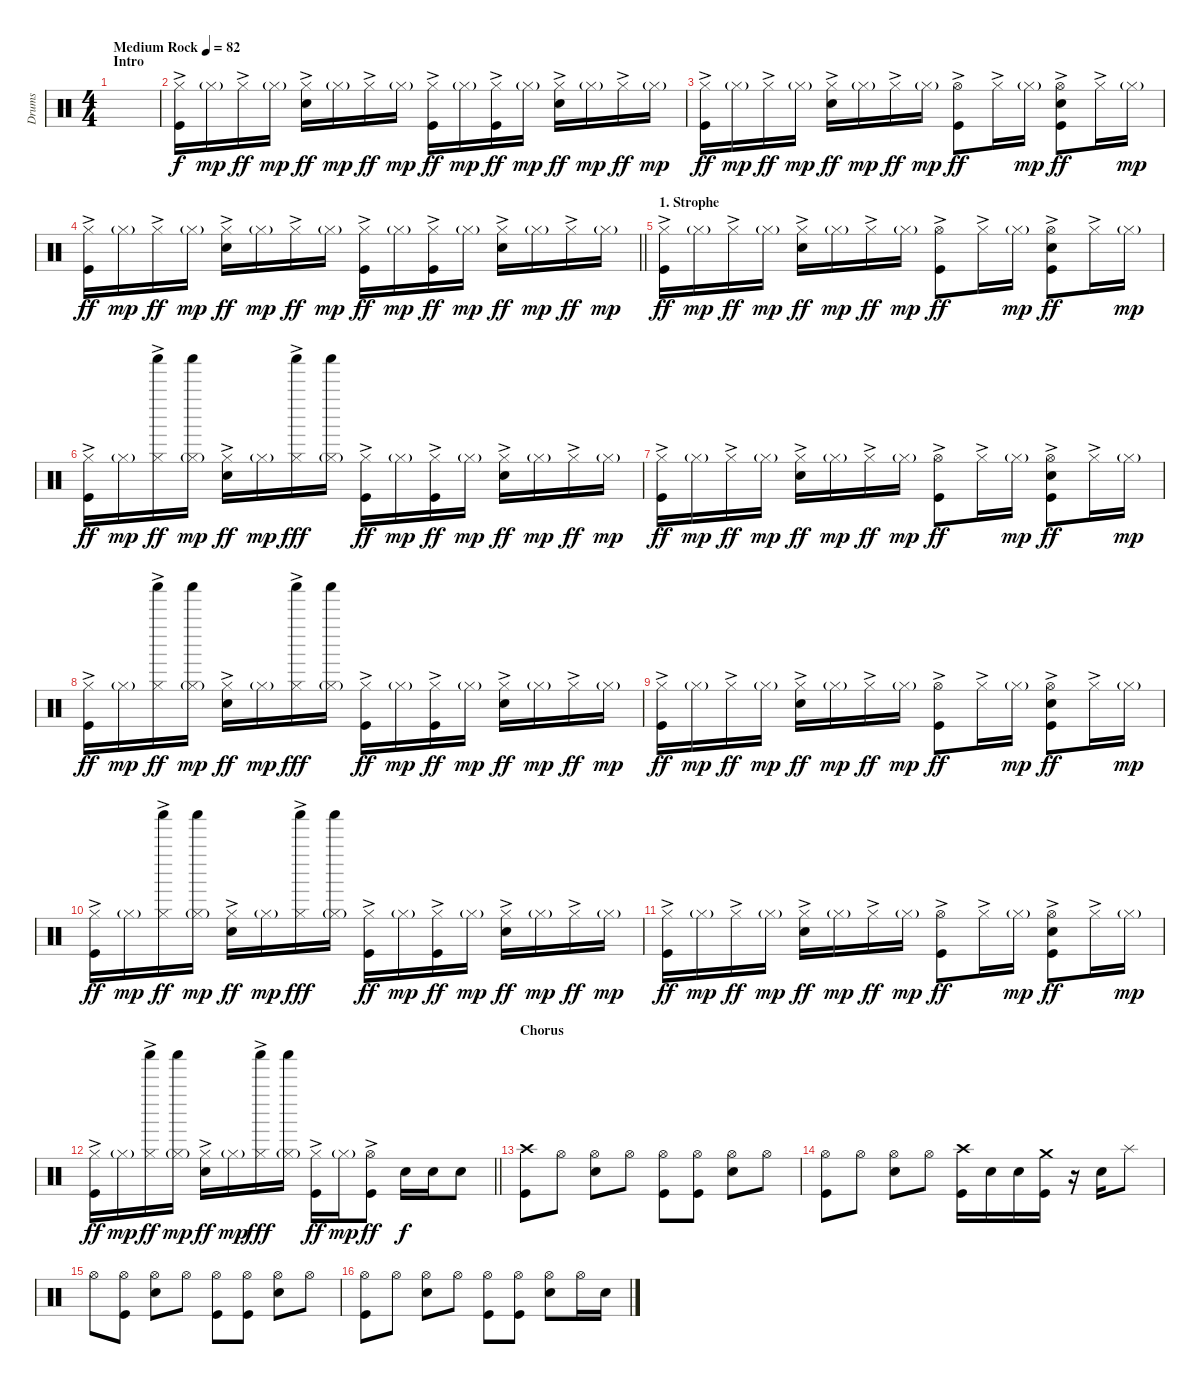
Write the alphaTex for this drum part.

\track ("Drums" "Drums") {instrument percussion}
\staff {score}
\articulation defaults
\ts (4 4)
\section ("" "Intro")
\tempo (82 "Medium Rock")
\clef neutral
\ks c
|
("Hi-Hat (closed)"{ac} "Kick (hit)").16 "Hi-Hat (closed)"{g}.16{dy mp} "Hi-Hat (closed)"{ac}.16{dy ff} "Hi-Hat (closed)"{g}.16{dy mp} ("Hi-Hat (closed)"{ac} "Snare (hit) 2").16{dy ff} "Hi-Hat (closed)"{g}.16{dy mp} "Hi-Hat (closed)"{ac}.16{dy ff} "Hi-Hat (closed)"{g}.16{dy mp} ("Hi-Hat (closed)"{ac} "Kick (hit)").16{dy ff} "Hi-Hat (closed)"{g}.16{dy mp} ("Hi-Hat (closed)"{ac} "Kick (hit)").16{dy ff} "Hi-Hat (closed)"{g}.16{dy mp} ("Hi-Hat (closed)"{ac} "Snare (hit) 2").16{dy ff} "Hi-Hat (closed)"{g}.16{dy mp} "Hi-Hat (closed)"{ac}.16{dy ff} "Hi-Hat (closed)"{g}.16{dy mp} |
("Hi-Hat (closed)"{ac} "Kick (hit)").16{dy ff} "Hi-Hat (closed)"{g}.16{dy mp} "Hi-Hat (closed)"{ac}.16{dy ff} "Hi-Hat (closed)"{g}.16{dy mp} ("Hi-Hat (closed)"{ac} "Snare (hit) 2").16{dy ff} "Hi-Hat (closed)"{g}.16{dy mp} "Hi-Hat (closed)"{ac}.16{dy ff} "Hi-Hat (closed)"{g}.16{dy mp} ("Hi-Hat (open)"{ac} "Kick (hit)").8{dy ff} "Hi-Hat (closed)"{ac}.16 "Hi-Hat (closed)"{g}.16{dy mp} ("Hi-Hat (open)"{ac} "Snare (hit) 2" "Kick (hit)").8{dy ff} "Hi-Hat (closed)"{ac}.16 "Hi-Hat (closed)"{g}.16{dy mp} |
\barLineRight lightlight
("Hi-Hat (closed)"{ac} "Kick (hit)").16{dy ff} "Hi-Hat (closed)"{g}.16{dy mp} "Hi-Hat (closed)"{ac}.16{dy ff} "Hi-Hat (closed)"{g}.16{dy mp} ("Hi-Hat (closed)"{ac} "Snare (hit) 2").16{dy ff} "Hi-Hat (closed)"{g}.16{dy mp} "Hi-Hat (closed)"{ac}.16{dy ff} "Hi-Hat (closed)"{g}.16{dy mp} ("Hi-Hat (closed)"{ac} "Kick (hit)").16{dy ff} "Hi-Hat (closed)"{g}.16{dy mp} ("Hi-Hat (closed)"{ac} "Kick (hit)").16{dy ff} "Hi-Hat (closed)"{g}.16{dy mp} ("Hi-Hat (closed)"{ac} "Snare (hit) 2").16{dy ff} "Hi-Hat (closed)"{g}.16{dy mp} "Hi-Hat (closed)"{ac}.16{dy ff} "Hi-Hat (closed)"{g}.16{dy mp} |
\section ("" "1. Strophe")
("Hi-Hat (closed)"{ac} "Kick (hit)").16{dy ff} "Hi-Hat (closed)"{g}.16{dy mp} "Hi-Hat (closed)"{ac}.16{dy ff} "Hi-Hat (closed)"{g}.16{dy mp} ("Hi-Hat (closed)"{ac} "Snare (hit) 2").16{dy ff} "Hi-Hat (closed)"{g}.16{dy mp} "Hi-Hat (closed)"{ac}.16{dy ff} "Hi-Hat (closed)"{g}.16{dy mp} ("Hi-Hat (open)"{ac} "Kick (hit)").8{dy ff} "Hi-Hat (closed)"{ac}.16 "Hi-Hat (closed)"{g}.16{dy mp} ("Hi-Hat (open)"{ac} "Snare (hit) 2" "Kick (hit)").8{dy ff} "Hi-Hat (closed)"{ac}.16 "Hi-Hat (closed)"{g}.16{dy mp} |
("Hi-Hat (closed)"{ac} "Kick (hit)").16{dy ff} "Hi-Hat (closed)"{g}.16{dy mp} ("Hi-Hat (closed)"{ac} "Shaker (hit)").16{dy ff} ("Hi-Hat (closed)"{g} "Shaker (hit)").16{dy mp} ("Hi-Hat (closed)"{ac} "Snare (hit) 2").16{dy ff} "Hi-Hat (closed)"{g}.16{dy mp} ("Hi-Hat (closed)"{ac} "Shaker (hit)").16{dy fff} ("Hi-Hat (closed)"{g} "Shaker (hit)").16 ("Hi-Hat (closed)"{ac} "Kick (hit)").16{dy ff} "Hi-Hat (closed)"{g}.16{dy mp} ("Hi-Hat (closed)"{ac} "Kick (hit)").16{dy ff} "Hi-Hat (closed)"{g}.16{dy mp} ("Hi-Hat (closed)"{ac} "Snare (hit) 2").16{dy ff} "Hi-Hat (closed)"{g}.16{dy mp} "Hi-Hat (closed)"{ac}.16{dy ff} "Hi-Hat (closed)"{g}.16{dy mp} |
("Hi-Hat (closed)"{ac} "Kick (hit)").16{dy ff} "Hi-Hat (closed)"{g}.16{dy mp} "Hi-Hat (closed)"{ac}.16{dy ff} "Hi-Hat (closed)"{g}.16{dy mp} ("Hi-Hat (closed)"{ac} "Snare (hit) 2").16{dy ff} "Hi-Hat (closed)"{g}.16{dy mp} "Hi-Hat (closed)"{ac}.16{dy ff} "Hi-Hat (closed)"{g}.16{dy mp} ("Hi-Hat (open)"{ac} "Kick (hit)").8{dy ff} "Hi-Hat (closed)"{ac}.16 "Hi-Hat (closed)"{g}.16{dy mp} ("Hi-Hat (open)"{ac} "Snare (hit) 2" "Kick (hit)").8{dy ff} "Hi-Hat (closed)"{ac}.16 "Hi-Hat (closed)"{g}.16{dy mp} |
("Hi-Hat (closed)"{ac} "Kick (hit)").16{dy ff} "Hi-Hat (closed)"{g}.16{dy mp} ("Hi-Hat (closed)"{ac} "Shaker (hit)").16{dy ff} ("Hi-Hat (closed)"{g} "Shaker (hit)").16{dy mp} ("Hi-Hat (closed)"{ac} "Snare (hit) 2").16{dy ff} "Hi-Hat (closed)"{g}.16{dy mp} ("Hi-Hat (closed)"{ac} "Shaker (hit)").16{dy fff} ("Hi-Hat (closed)"{g} "Shaker (hit)").16 ("Hi-Hat (closed)"{ac} "Kick (hit)").16{dy ff} "Hi-Hat (closed)"{g}.16{dy mp} ("Hi-Hat (closed)"{ac} "Kick (hit)").16{dy ff} "Hi-Hat (closed)"{g}.16{dy mp} ("Hi-Hat (closed)"{ac} "Snare (hit) 2").16{dy ff} "Hi-Hat (closed)"{g}.16{dy mp} "Hi-Hat (closed)"{ac}.16{dy ff} "Hi-Hat (closed)"{g}.16{dy mp} |
("Hi-Hat (closed)"{ac} "Kick (hit)").16{dy ff} "Hi-Hat (closed)"{g}.16{dy mp} "Hi-Hat (closed)"{ac}.16{dy ff} "Hi-Hat (closed)"{g}.16{dy mp} ("Hi-Hat (closed)"{ac} "Snare (hit) 2").16{dy ff} "Hi-Hat (closed)"{g}.16{dy mp} "Hi-Hat (closed)"{ac}.16{dy ff} "Hi-Hat (closed)"{g}.16{dy mp} ("Hi-Hat (open)"{ac} "Kick (hit)").8{dy ff} "Hi-Hat (closed)"{ac}.16 "Hi-Hat (closed)"{g}.16{dy mp} ("Hi-Hat (open)"{ac} "Snare (hit) 2" "Kick (hit)").8{dy ff} "Hi-Hat (closed)"{ac}.16 "Hi-Hat (closed)"{g}.16{dy mp} |
("Hi-Hat (closed)"{ac} "Kick (hit)").16{dy ff} "Hi-Hat (closed)"{g}.16{dy mp} ("Hi-Hat (closed)"{ac} "Shaker (hit)").16{dy ff} ("Hi-Hat (closed)"{g} "Shaker (hit)").16{dy mp} ("Hi-Hat (closed)"{ac} "Snare (hit) 2").16{dy ff} "Hi-Hat (closed)"{g}.16{dy mp} ("Hi-Hat (closed)"{ac} "Shaker (hit)").16{dy fff} ("Hi-Hat (closed)"{g} "Shaker (hit)").16 ("Hi-Hat (closed)"{ac} "Kick (hit)").16{dy ff} "Hi-Hat (closed)"{g}.16{dy mp} ("Hi-Hat (closed)"{ac} "Kick (hit)").16{dy ff} "Hi-Hat (closed)"{g}.16{dy mp} ("Hi-Hat (closed)"{ac} "Snare (hit) 2").16{dy ff} "Hi-Hat (closed)"{g}.16{dy mp} "Hi-Hat (closed)"{ac}.16{dy ff} "Hi-Hat (closed)"{g}.16{dy mp} |
("Hi-Hat (closed)"{ac} "Kick (hit)").16{dy ff} "Hi-Hat (closed)"{g}.16{dy mp} "Hi-Hat (closed)"{ac}.16{dy ff} "Hi-Hat (closed)"{g}.16{dy mp} ("Hi-Hat (closed)"{ac} "Snare (hit) 2").16{dy ff} "Hi-Hat (closed)"{g}.16{dy mp} "Hi-Hat (closed)"{ac}.16{dy ff} "Hi-Hat (closed)"{g}.16{dy mp} ("Hi-Hat (open)"{ac} "Kick (hit)").8{dy ff} "Hi-Hat (closed)"{ac}.16 "Hi-Hat (closed)"{g}.16{dy mp} ("Hi-Hat (open)"{ac} "Snare (hit) 2" "Kick (hit)").8{dy ff} "Hi-Hat (closed)"{ac}.16 "Hi-Hat (closed)"{g}.16{dy mp} |
\barLineRight lightlight
("Hi-Hat (closed)"{ac} "Kick (hit)").16{dy ff} "Hi-Hat (closed)"{g}.16{dy mp} ("Hi-Hat (closed)"{ac} "Shaker (hit)").16{dy ff} ("Hi-Hat (closed)"{g} "Shaker (hit)").16{dy mp} ("Hi-Hat (closed)"{ac} "Snare (hit) 2").16{dy ff} "Hi-Hat (closed)"{g}.16{dy mp} ("Hi-Hat (closed)"{ac} "Shaker (hit)").16{dy fff} ("Hi-Hat (closed)"{g} "Shaker (hit)").16 ("Hi-Hat (closed)"{ac} "Kick (hit)").16{dy ff} "Hi-Hat (closed)"{g}.16{dy mp} ("Hi-Hat (open)"{ac} "Kick (hit)").8{dy ff} "Snare (hit) 2".16{dy f} "Snare (hit) 2".16 "Snare (hit) 2".8 |
\section ("" "Chorus")
("Crash high (hit)" "Kick (hit)").8 "Hi-Hat (open)".8 ("Hi-Hat (open)" "Snare (hit) 2").8 "Hi-Hat (open)".8 ("Hi-Hat (open)" "Kick (hit)").8 ("Hi-Hat (open)" "Kick (hit)").8 ("Hi-Hat (open)" "Snare (hit) 2").8 "Hi-Hat (open)".8 |
("Hi-Hat (open)" "Kick (hit)").8 "Hi-Hat (open)".8 ("Hi-Hat (open)" "Snare (hit) 2").8 "Hi-Hat (open)".8 ("Crash high (hit)" "Kick (hit)").16 "Snare (hit) 2".16 "Snare (hit) 2".16 ("Crash medium (hit)" "Kick (hit)").16 r.16 "Snare (hit) 2".16 "Splash (hit)".8 |
"Hi-Hat (open)".8 ("Hi-Hat (open)" "Kick (hit)").8 ("Hi-Hat (open)" "Snare (hit) 2").8 "Hi-Hat (open)".8 ("Hi-Hat (open)" "Kick (hit)").8 ("Hi-Hat (open)" "Kick (hit)").8 ("Hi-Hat (open)" "Snare (hit) 2").8 "Hi-Hat (open)".8 |
("Hi-Hat (open)" "Kick (hit)").8 "Hi-Hat (open)".8 ("Hi-Hat (open)" "Snare (hit) 2").8 "Hi-Hat (open)".8 ("Hi-Hat (open)" "Kick (hit)").8 ("Hi-Hat (open)" "Kick (hit)").8 ("Hi-Hat (open)" "Snare (hit) 2").8 "Hi-Hat (open)".16 "Snare (hit) 2".16
